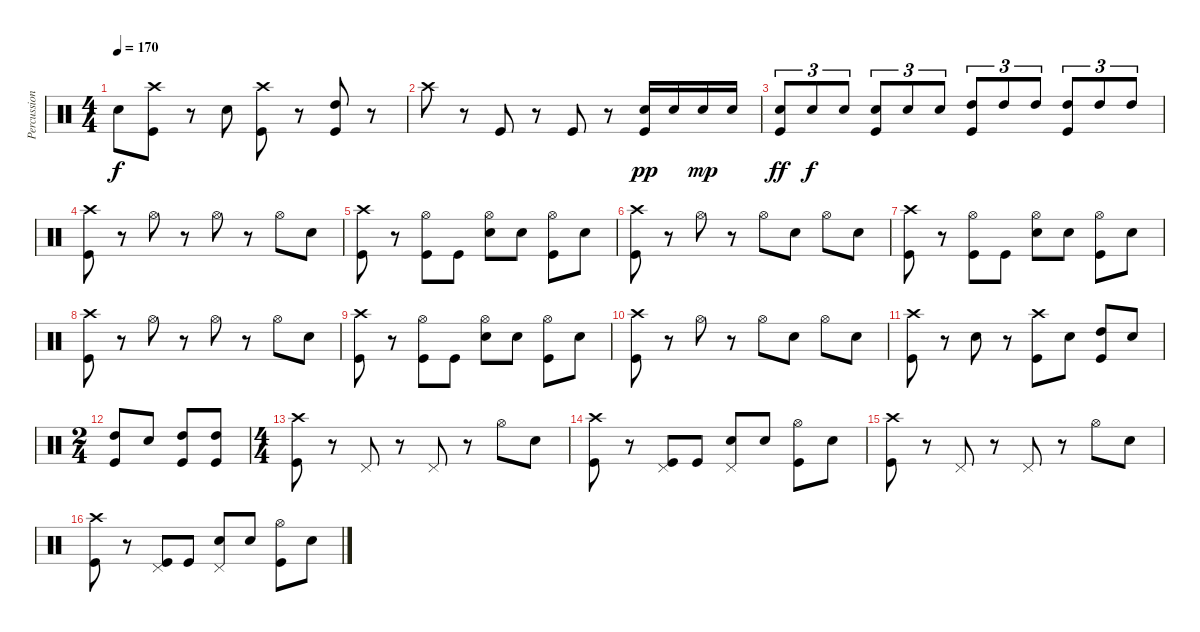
\track ("Percussion" "Percussion") {instrument percussion}
\staff {score}
\articulation defaults
\ts (4 4)
\tempo 170
\clef neutral
\ks c "Snare (hit) 2".8{dy f}
("Crash high (hit)" "Kick (hit)").8 r.8 "Snare (hit) 2".8 ("Crash high (hit)" "Kick (hit)").8 r.8 ("High Tom (hit)" "Kick (hit)").8 r.8 |
"Crash high (hit)".8 r.8 "Kick (hit)".8 r.8 "Kick (hit)".8 r.8 ("Snare (hit) 2" "Kick (hit)").16{dy pp} "Snare (hit) 2".16 "Snare (hit) 2".16{dy mp} "Snare (hit) 2".16 |
("Snare (hit) 2" "Kick (hit)").8{tu (3 2) dy ff} "Snare (hit) 2".8{tu (3 2) dy f} "Snare (hit) 2".8{tu (3 2)} ("Snare (hit) 2" "Kick (hit)").8{tu (3 2)} "Snare (hit) 2".8{tu (3 2)} "Snare (hit) 2".8{tu (3 2)} ("High Tom (hit)" "Kick (hit)").8{tu (3 2)} "High Tom (hit)".8{tu (3 2)} "High Tom (hit)".8{tu (3 2)} ("High Tom (hit)" "Kick (hit)").8{tu (3 2)} "High Tom (hit)".8{tu (3 2)} "High Tom (hit)".8{tu (3 2)} |
("Crash high (hit)" "Kick (hit)").8 r.8 "Hi-Hat (open)".8 r.8 "Hi-Hat (open)".8 r.8 "Hi-Hat (open)".8 "Snare (hit) 2".8 |
("Crash high (hit)" "Kick (hit)").8 r.8 ("Hi-Hat (open)" "Kick (hit)").8 "Kick (hit)".8 ("Snare (hit) 2" "Hi-Hat (open)").8 "Snare (hit) 2".8 ("Hi-Hat (open)" "Kick (hit)").8 "Snare (hit) 2".8 |
("Crash high (hit)" "Kick (hit)").8 r.8 "Hi-Hat (open)".8 r.8 "Hi-Hat (open)".8 "Snare (hit) 2".8 "Hi-Hat (open)".8 "Snare (hit) 2".8 |
("Crash high (hit)" "Kick (hit)").8 r.8 ("Hi-Hat (open)" "Kick (hit)").8 "Kick (hit)".8 ("Snare (hit) 2" "Hi-Hat (open)").8 "Snare (hit) 2".8 ("Hi-Hat (open)" "Kick (hit)").8 "Snare (hit) 2".8 |
("Crash high (hit)" "Kick (hit)").8 r.8 "Hi-Hat (open)".8 r.8 "Hi-Hat (open)".8 r.8 "Hi-Hat (open)".8 "Snare (hit) 2".8 |
("Crash high (hit)" "Kick (hit)").8 r.8 ("Hi-Hat (open)" "Kick (hit)").8 "Kick (hit)".8 ("Snare (hit) 2" "Hi-Hat (open)").8 "Snare (hit) 2".8 ("Hi-Hat (open)" "Kick (hit)").8 "Snare (hit) 2".8 |
("Crash high (hit)" "Kick (hit)").8 r.8 "Hi-Hat (open)".8 r.8 "Hi-Hat (open)".8 "Snare (hit) 2".8 "Hi-Hat (open)".8 "Snare (hit) 2".8 |
("Crash high (hit)" "Kick (hit)").8 r.8 "Snare (hit) 2".8 r.8 ("Crash high (hit)" "Kick (hit)").8 "Snare (hit) 2".8 ("High Tom (hit)" "Kick (hit)").8 "Snare (hit) 2".8 |
\ts (2 4)
("High Tom (hit)" "Kick (hit)").8 "Snare (hit) 2".8 ("High Tom (hit)" "Kick (hit)").8 ("High Tom (hit)" "Kick (hit)").8 |
\ts (4 4)
("Crash high (hit)" "Kick (hit)").8 r.8 "Pedal Hi-Hat (hit)".8 r.8 "Pedal Hi-Hat (hit)".8 r.8 "Hi-Hat (open)".8 "Snare (hit) 2".8 |
("Crash high (hit)" "Kick (hit)").8 r.8 ("Pedal Hi-Hat (hit)" "Kick (hit)").8 "Kick (hit)".8 ("Snare (hit) 2" "Pedal Hi-Hat (hit)").8 "Snare (hit) 2".8 ("Hi-Hat (open)" "Kick (hit)").8 "Snare (hit) 2".8 |
("Crash high (hit)" "Kick (hit)").8 r.8 "Pedal Hi-Hat (hit)".8 r.8 "Pedal Hi-Hat (hit)".8 r.8 "Hi-Hat (open)".8 "Snare (hit) 2".8 |
("Crash high (hit)" "Kick (hit)").8 r.8 ("Pedal Hi-Hat (hit)" "Kick (hit)").8 "Kick (hit)".8 ("Snare (hit) 2" "Pedal Hi-Hat (hit)").8 "Snare (hit) 2".8 ("Hi-Hat (open)" "Kick (hit)").8 "Snare (hit) 2".8
